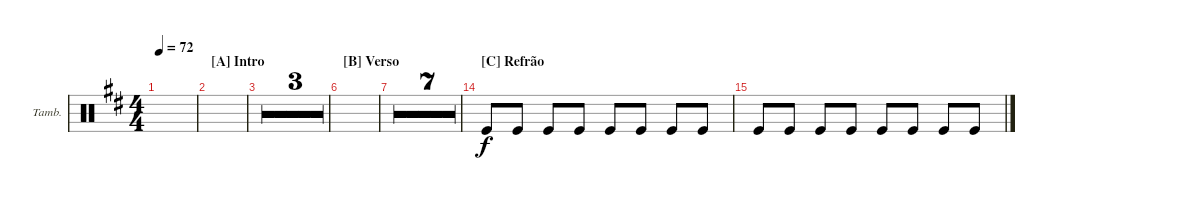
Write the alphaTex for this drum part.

\defaultSystemsLayout 4
\bracketExtendMode groupsimilarinstruments
\firstSystemTrackNameOrientation horizontal
\otherSystemsTrackNameOrientation horizontal
\track ("Tambourine" "Tamb.") {multiBarRest instrument percussion}
\staff {score}
\articulation defaults
\ts (4 4)
\tempo 72
\clef neutral
\ks d
|
\section ("A" "Intro")
|
|
|
|
\section ("B" "Verso")
|
|
|
|
|
|
|
|
\section ("C" "Refrão")
"Kick (hit)".8 "Kick (hit)".8 "Kick (hit)".8 "Kick (hit)".8 "Kick (hit)".8 "Kick (hit)".8 "Kick (hit)".8 "Kick (hit)".8 |
"Kick (hit)".8 "Kick (hit)".8 "Kick (hit)".8 "Kick (hit)".8 "Kick (hit)".8 "Kick (hit)".8 "Kick (hit)".8 "Kick (hit)".8
